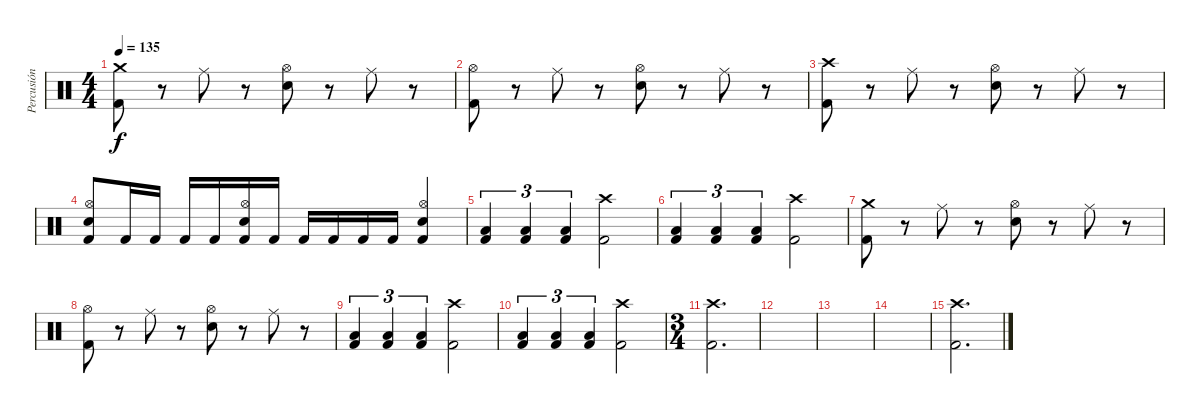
\track ("Percusión" "Percusión") {instrument percussion}
\staff {score}
\articulation defaults
\ts (4 4)
\tempo 135
\clef neutral
\ks c
("Crash medium (hit)" "Kick (hit) 2").8{dy f} r.8 "Ride (middle)".8 r.8 ("Hi-Hat (open)" "Electric Snare (hit)").8 r.8 "Ride (middle)".8 r.8 |
("Hi-Hat (open)" "Kick (hit) 2").8 r.8 "Ride (middle)".8 r.8 ("Hi-Hat (open)" "Electric Snare (hit)").8 r.8 "Ride (middle)".8 r.8 |
("Crash high (hit)" "Kick (hit) 2").8 r.8 "Ride (middle)".8 r.8 ("Hi-Hat (open)" "Electric Snare (hit)").8 r.8 "Ride (middle)".8 r.8 |
("Hi-Hat (open)" "Electric Snare (hit)" "Kick (hit) 2").8 "Kick (hit) 2".16 "Kick (hit) 2".16 "Kick (hit) 2".16 "Kick (hit) 2".16 ("Hi-Hat (open)" "Electric Snare (hit)" "Kick (hit) 2").16 "Kick (hit) 2".16 "Kick (hit) 2".16 "Kick (hit) 2".16 "Kick (hit) 2".16 "Kick (hit) 2".16 ("Hi-Hat (open)" "Electric Snare (hit)" "Kick (hit) 2").4 |
("Low Floor Tom (hit)" "Kick (hit) 2").4{tu (3 2)} ("Low Floor Tom (hit)" "Kick (hit) 2").4{tu (3 2)} ("Low Floor Tom (hit)" "Kick (hit) 2").4{tu (3 2)} ("Crash high (hit)" "Kick (hit) 2").2 |
("Low Floor Tom (hit)" "Kick (hit) 2").4{tu (3 2)} ("Low Floor Tom (hit)" "Kick (hit) 2").4{tu (3 2)} ("Low Floor Tom (hit)" "Kick (hit) 2").4{tu (3 2)} ("Crash high (hit)" "Kick (hit) 2").2 |
("Crash medium (hit)" "Kick (hit) 2").8 r.8 "Ride (middle)".8 r.8 ("Hi-Hat (open)" "Electric Snare (hit)").8 r.8 "Ride (middle)".8 r.8 |
("Hi-Hat (open)" "Kick (hit) 2").8 r.8 "Ride (middle)".8 r.8 ("Hi-Hat (open)" "Electric Snare (hit)").8 r.8 "Ride (middle)".8 r.8 |
("Low Floor Tom (hit)" "Kick (hit) 2").4{tu (3 2)} ("Low Floor Tom (hit)" "Kick (hit) 2").4{tu (3 2)} ("Low Floor Tom (hit)" "Kick (hit) 2").4{tu (3 2)} ("Crash high (hit)" "Kick (hit) 2").2 |
("Low Floor Tom (hit)" "Kick (hit) 2").4{tu (3 2)} ("Low Floor Tom (hit)" "Kick (hit) 2").4{tu (3 2)} ("Low Floor Tom (hit)" "Kick (hit) 2").4{tu (3 2)} ("Crash high (hit)" "Kick (hit) 2").2 |
\ts (3 4)
("Crash high (hit)" "Kick (hit) 2").2{d} |
|
|
|
("Crash high (hit)" "Kick (hit) 2").2{d}
